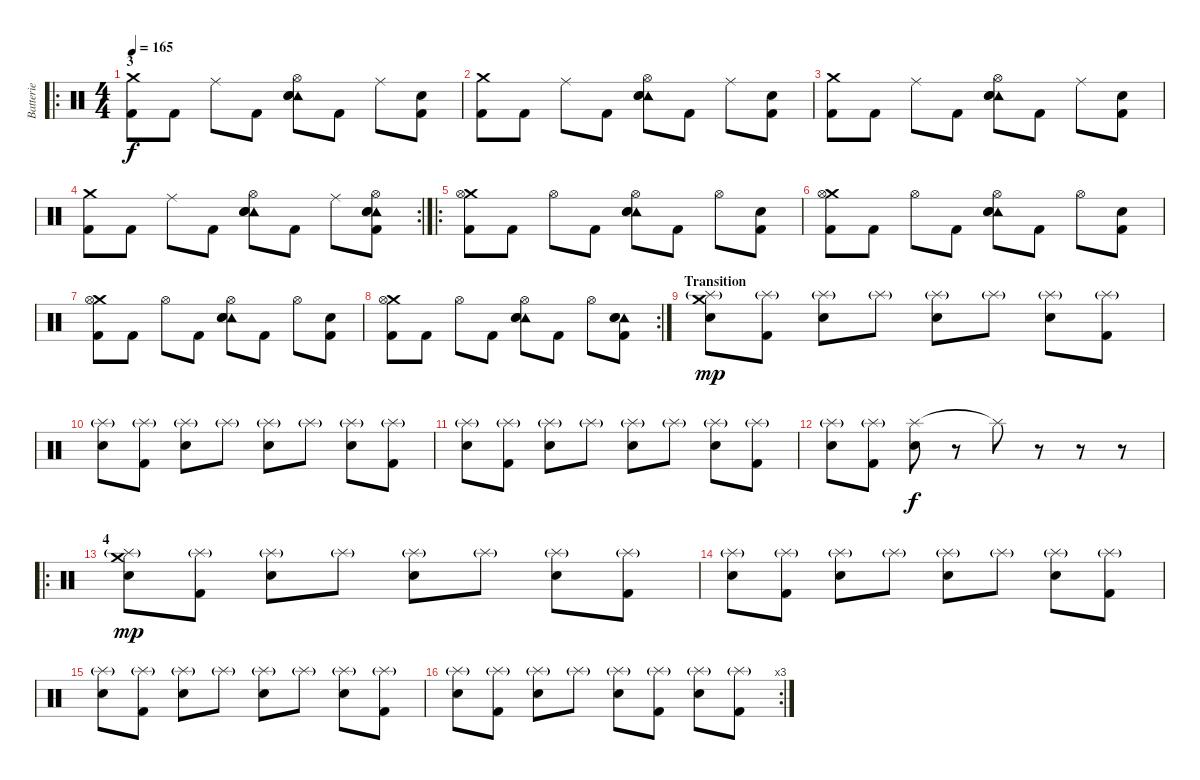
\track ("Batterie" "Batterie") {instrument percussion}
\staff {score}
\articulation defaults
\ro
\ts (4 4)
\section ("" "3")
\tempo 165
\clef neutral
\ks c
("Crash medium (hit)" "Kick (hit) 2").8{dy f volume 15} "Kick (hit) 2".8 "Ride (middle)".8 "Kick (hit) 2".8 ("Hi-Hat (open)" "Tambourine (hit)" "Electric Snare (hit)" "Snare (hit) 2").8 "Kick (hit) 2".8 "Ride (middle)".8 ("Snare (hit) 2" "Kick (hit) 2").8 |
("Crash medium (hit)" "Kick (hit) 2").8 "Kick (hit) 2".8 "Ride (middle)".8 "Kick (hit) 2".8 ("Hi-Hat (open)" "Tambourine (hit)" "Electric Snare (hit)" "Snare (hit) 2").8 "Kick (hit) 2".8 "Ride (middle)".8 ("Snare (hit) 2" "Kick (hit) 2").8 |
("Crash medium (hit)" "Kick (hit) 2").8 "Kick (hit) 2".8 "Ride (middle)".8 "Kick (hit) 2".8 ("Hi-Hat (open)" "Tambourine (hit)" "Electric Snare (hit)" "Snare (hit) 2").8 "Kick (hit) 2".8 "Ride (middle)".8 ("Snare (hit) 2" "Kick (hit) 2").8 |
\rc 2
("Crash medium (hit)" "Kick (hit) 2").8 "Kick (hit) 2".8 "Ride (middle)".8 "Kick (hit) 2".8 ("Hi-Hat (open)" "Tambourine (hit)" "Electric Snare (hit)" "Snare (hit) 2").8 "Kick (hit) 2".8 "Ride (middle)".8 ("Hi-Hat (open)" "Tambourine (hit)" "Electric Snare (hit)" "Snare (hit) 2" "Kick (hit) 2").8 |
\ro
("Crash medium (hit)" "Hi-Hat (open)" "Kick (hit) 2").8 "Kick (hit) 2".8 "Hi-Hat (open)".8 "Kick (hit) 2".8 ("Hi-Hat (open)" "Tambourine (hit)" "Electric Snare (hit)" "Snare (hit) 2").8 "Kick (hit) 2".8 "Hi-Hat (open)".8 ("Snare (hit) 2" "Kick (hit) 2").8 |
("Crash medium (hit)" "Hi-Hat (open)" "Kick (hit) 2").8 "Kick (hit) 2".8 "Hi-Hat (open)".8 "Kick (hit) 2".8 ("Hi-Hat (open)" "Tambourine (hit)" "Electric Snare (hit)" "Snare (hit) 2").8 "Kick (hit) 2".8 "Hi-Hat (open)".8 ("Snare (hit) 2" "Kick (hit) 2").8 |
("Crash medium (hit)" "Hi-Hat (open)" "Kick (hit) 2").8 "Kick (hit) 2".8 "Hi-Hat (open)".8 "Kick (hit) 2".8 ("Hi-Hat (open)" "Tambourine (hit)" "Electric Snare (hit)" "Snare (hit) 2").8 "Kick (hit) 2".8 "Hi-Hat (open)".8 ("Snare (hit) 2" "Kick (hit) 2").8 |
\rc 2
("Crash medium (hit)" "Hi-Hat (open)" "Kick (hit) 2").8 "Kick (hit) 2".8 "Hi-Hat (open)".8 "Kick (hit) 2".8 ("Hi-Hat (open)" "Tambourine (hit)" "Electric Snare (hit)" "Snare (hit) 2").8 "Kick (hit) 2".8 "Hi-Hat (open)".8 ("Tambourine (hit)" "Electric Snare (hit)" "Snare (hit) 2" "Kick (hit) 2").8 |
\section ("" "Transition")
("Splash (hit)"{g} "Electric Snare (hit)" "Crash medium (hit)").8{dy mp volume 13} ("Splash (hit)"{g} "Kick (hit) 2").8 ("Splash (hit)"{g} "Electric Snare (hit)").8 "Splash (hit)"{g}.8 ("Splash (hit)"{g} "Electric Snare (hit)").8 "Splash (hit)"{g}.8 ("Splash (hit)"{g} "Electric Snare (hit)").8 ("Splash (hit)"{g} "Kick (hit) 2").8 |
("Splash (hit)"{g} "Electric Snare (hit)").8 ("Splash (hit)"{g} "Kick (hit) 2").8 ("Splash (hit)"{g} "Electric Snare (hit)").8 "Splash (hit)"{g}.8 ("Splash (hit)"{g} "Electric Snare (hit)").8 "Splash (hit)"{g}.8 ("Splash (hit)"{g} "Electric Snare (hit)").8 ("Splash (hit)"{g} "Kick (hit) 2").8 |
("Splash (hit)"{g} "Electric Snare (hit)").8 ("Splash (hit)"{g} "Kick (hit) 2").8 ("Splash (hit)"{g} "Electric Snare (hit)").8 "Splash (hit)"{g}.8 ("Splash (hit)"{g} "Electric Snare (hit)").8 "Splash (hit)"{g}.8 ("Splash (hit)"{g} "Electric Snare (hit)").8 ("Splash (hit)"{g} "Kick (hit) 2").8 |
("Splash (hit)"{g} "Electric Snare (hit)").8 ("Splash (hit)"{g} "Kick (hit) 2").8 ("Splash (hit)" "Electric Snare (hit)").8{dy f} r.8 "Splash (hit)"{t}.8 r.8 r.8 r.8 |
\ro
\section ("" "4")
("Splash (hit)"{g} "Electric Snare (hit)" "Crash medium (hit)").8{dy mp} ("Splash (hit)"{g} "Kick (hit) 2").8 ("Splash (hit)"{g} "Electric Snare (hit)").8 "Splash (hit)"{g}.8 ("Splash (hit)"{g} "Electric Snare (hit)").8 "Splash (hit)"{g}.8 ("Splash (hit)"{g} "Electric Snare (hit)").8 ("Splash (hit)"{g} "Kick (hit) 2").8 |
("Splash (hit)"{g} "Electric Snare (hit)").8 ("Splash (hit)"{g} "Kick (hit) 2").8 ("Splash (hit)"{g} "Electric Snare (hit)").8 "Splash (hit)"{g}.8 ("Splash (hit)"{g} "Electric Snare (hit)").8 "Splash (hit)"{g}.8 ("Splash (hit)"{g} "Electric Snare (hit)").8 ("Splash (hit)"{g} "Kick (hit) 2").8 |
("Splash (hit)"{g} "Electric Snare (hit)").8 ("Splash (hit)"{g} "Kick (hit) 2").8 ("Splash (hit)"{g} "Electric Snare (hit)").8 "Splash (hit)"{g}.8 ("Splash (hit)"{g} "Electric Snare (hit)").8 "Splash (hit)"{g}.8 ("Splash (hit)"{g} "Electric Snare (hit)").8 ("Splash (hit)"{g} "Kick (hit) 2").8 |
\rc 3
("Splash (hit)"{g} "Electric Snare (hit)").8 ("Splash (hit)"{g} "Kick (hit) 2").8 ("Splash (hit)"{g} "Electric Snare (hit)").8 "Splash (hit)"{g}.8 ("Splash (hit)"{g} "Electric Snare (hit)").8 ("Splash (hit)"{g} "Kick (hit) 2").8 ("Splash (hit)"{g} "Electric Snare (hit)").8 ("Splash (hit)"{g} "Kick (hit) 2").8
